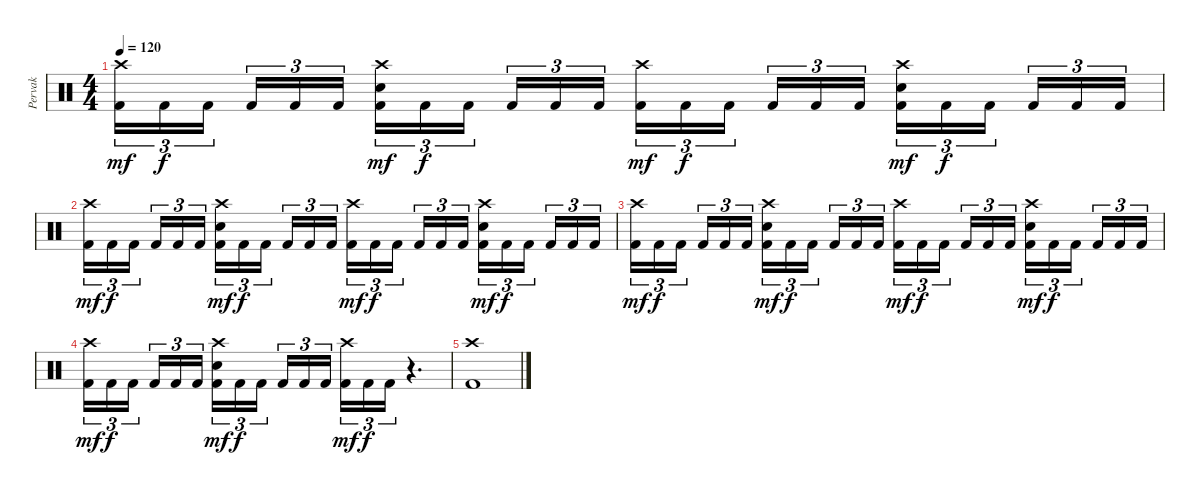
\track ("Pervak" "Pervak") {instrument percussion}
\staff {score}
\articulation defaults
\ts (4 4)
\tempo 120
\clef neutral
\ks c
("Crash high (hit)" "Kick (hit) 2").16{tu (3 2) dy mf} "Kick (hit) 2".16{tu (3 2) dy f} "Kick (hit) 2".16{tu (3 2) beam splitsecondary} "Kick (hit) 2".16{tu (3 2)} "Kick (hit) 2".16{tu (3 2)} "Kick (hit) 2".16{tu (3 2)} ("Crash high (hit)" "Electric Snare (hit)" "Kick (hit) 2").16{tu (3 2) dy mf} "Kick (hit) 2".16{tu (3 2) dy f} "Kick (hit) 2".16{tu (3 2) beam splitsecondary} "Kick (hit) 2".16{tu (3 2)} "Kick (hit) 2".16{tu (3 2)} "Kick (hit) 2".16{tu (3 2)} ("Crash high (hit)" "Kick (hit) 2").16{tu (3 2) dy mf} "Kick (hit) 2".16{tu (3 2) dy f} "Kick (hit) 2".16{tu (3 2) beam splitsecondary} "Kick (hit) 2".16{tu (3 2)} "Kick (hit) 2".16{tu (3 2)} "Kick (hit) 2".16{tu (3 2)} ("Crash high (hit)" "Electric Snare (hit)" "Kick (hit) 2").16{tu (3 2) dy mf} "Kick (hit) 2".16{tu (3 2) dy f} "Kick (hit) 2".16{tu (3 2) beam splitsecondary} "Kick (hit) 2".16{tu (3 2)} "Kick (hit) 2".16{tu (3 2)} "Kick (hit) 2".16{tu (3 2)} |
("Crash high (hit)" "Kick (hit) 2").16{tu (3 2) dy mf} "Kick (hit) 2".16{tu (3 2) dy f} "Kick (hit) 2".16{tu (3 2) beam splitsecondary} "Kick (hit) 2".16{tu (3 2)} "Kick (hit) 2".16{tu (3 2)} "Kick (hit) 2".16{tu (3 2)} ("Crash high (hit)" "Electric Snare (hit)" "Kick (hit) 2").16{tu (3 2) dy mf} "Kick (hit) 2".16{tu (3 2) dy f} "Kick (hit) 2".16{tu (3 2) beam splitsecondary} "Kick (hit) 2".16{tu (3 2)} "Kick (hit) 2".16{tu (3 2)} "Kick (hit) 2".16{tu (3 2)} ("Crash high (hit)" "Kick (hit) 2").16{tu (3 2) dy mf} "Kick (hit) 2".16{tu (3 2) dy f} "Kick (hit) 2".16{tu (3 2) beam splitsecondary} "Kick (hit) 2".16{tu (3 2)} "Kick (hit) 2".16{tu (3 2)} "Kick (hit) 2".16{tu (3 2)} ("Crash high (hit)" "Electric Snare (hit)" "Kick (hit) 2").16{tu (3 2) dy mf} "Kick (hit) 2".16{tu (3 2) dy f} "Kick (hit) 2".16{tu (3 2) beam splitsecondary} "Kick (hit) 2".16{tu (3 2)} "Kick (hit) 2".16{tu (3 2)} "Kick (hit) 2".16{tu (3 2)} |
("Crash high (hit)" "Kick (hit) 2").16{tu (3 2) dy mf} "Kick (hit) 2".16{tu (3 2) dy f} "Kick (hit) 2".16{tu (3 2) beam splitsecondary} "Kick (hit) 2".16{tu (3 2)} "Kick (hit) 2".16{tu (3 2)} "Kick (hit) 2".16{tu (3 2)} ("Crash high (hit)" "Electric Snare (hit)" "Kick (hit) 2").16{tu (3 2) dy mf} "Kick (hit) 2".16{tu (3 2) dy f} "Kick (hit) 2".16{tu (3 2) beam splitsecondary} "Kick (hit) 2".16{tu (3 2)} "Kick (hit) 2".16{tu (3 2)} "Kick (hit) 2".16{tu (3 2)} ("Crash high (hit)" "Kick (hit) 2").16{tu (3 2) dy mf} "Kick (hit) 2".16{tu (3 2) dy f} "Kick (hit) 2".16{tu (3 2) beam splitsecondary} "Kick (hit) 2".16{tu (3 2)} "Kick (hit) 2".16{tu (3 2)} "Kick (hit) 2".16{tu (3 2)} ("Crash high (hit)" "Electric Snare (hit)" "Kick (hit) 2").16{tu (3 2) dy mf} "Kick (hit) 2".16{tu (3 2) dy f} "Kick (hit) 2".16{tu (3 2) beam splitsecondary} "Kick (hit) 2".16{tu (3 2)} "Kick (hit) 2".16{tu (3 2)} "Kick (hit) 2".16{tu (3 2)} |
("Crash high (hit)" "Kick (hit) 2").16{tu (3 2) dy mf} "Kick (hit) 2".16{tu (3 2) dy f} "Kick (hit) 2".16{tu (3 2) beam splitsecondary} "Kick (hit) 2".16{tu (3 2)} "Kick (hit) 2".16{tu (3 2)} "Kick (hit) 2".16{tu (3 2)} ("Crash high (hit)" "Electric Snare (hit)" "Kick (hit) 2").16{tu (3 2) dy mf} "Kick (hit) 2".16{tu (3 2) dy f} "Kick (hit) 2".16{tu (3 2) beam splitsecondary} "Kick (hit) 2".16{tu (3 2)} "Kick (hit) 2".16{tu (3 2)} "Kick (hit) 2".16{tu (3 2)} ("Crash high (hit)" "Kick (hit) 2").16{tu (3 2) dy mf} "Kick (hit) 2".16{tu (3 2) dy f} "Kick (hit) 2".16{tu (3 2)} r.4{d} |
("Crash high (hit)" "Kick (hit) 2").1
